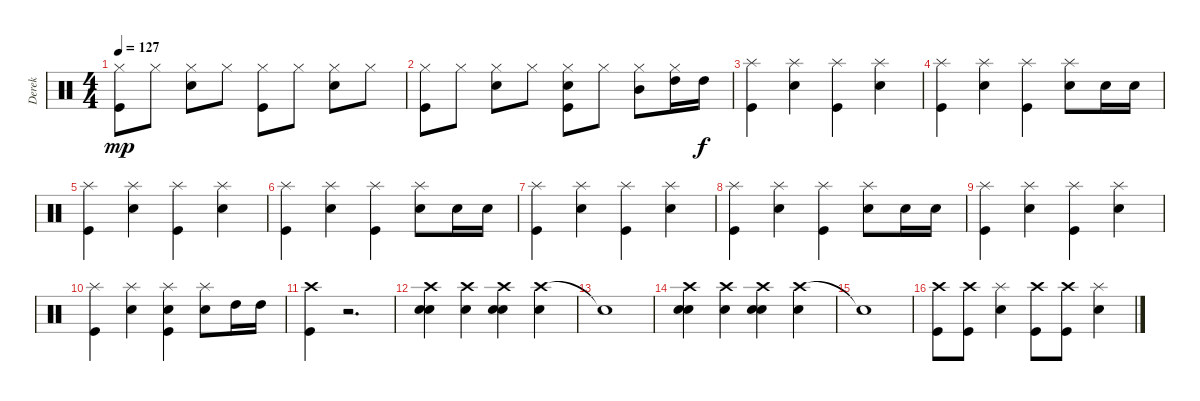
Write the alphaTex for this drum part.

\track ("Derek" "Derek") {instrument percussion}
\staff {score}
\articulation defaults
\ts (4 4)
\tempo 127
\clef neutral
\ks c
("Hi-Hat (closed)" "Kick (hit)").8{dy mp} "Hi-Hat (closed)".8 ("Hi-Hat (closed)" "Snare (hit) 2").8 "Hi-Hat (closed)".8 ("Hi-Hat (closed)" "Kick (hit)").8 "Hi-Hat (closed)".8 ("Hi-Hat (closed)" "Snare (hit) 2").8 "Hi-Hat (closed)".8 |
("Hi-Hat (closed)" "Kick (hit)").8 "Hi-Hat (closed)".8 ("Hi-Hat (closed)" "Snare (hit) 2").8 "Hi-Hat (closed)".8 ("Hi-Hat (closed)" "Snare (hit) 2" "Kick (hit)").8 "Hi-Hat (closed)".8 ("Hi-Hat (closed)" "Mid Tom (hit)").8 ("Hi-Hat (closed)" "High Tom (hit)").16 "High Tom (hit)".16{dy f} |
("Splash (hit)" "Kick (hit)").4 ("Splash (hit)" "Snare (hit) 2").4 ("Splash (hit)" "Kick (hit)").4 ("Splash (hit)" "Snare (hit) 2").4 |
("Splash (hit)" "Kick (hit)").4 ("Splash (hit)" "Snare (hit) 2").4 ("Splash (hit)" "Kick (hit)").4 ("Splash (hit)" "Snare (hit) 2").8 "Snare (hit) 2".16 "Snare (hit) 2".16 |
("Splash (hit)" "Kick (hit)").4 ("Splash (hit)" "Snare (hit) 2").4 ("Splash (hit)" "Kick (hit)").4 ("Splash (hit)" "Snare (hit) 2").4 |
("Splash (hit)" "Kick (hit)").4 ("Splash (hit)" "Snare (hit) 2").4 ("Splash (hit)" "Kick (hit)").4 ("Splash (hit)" "Snare (hit) 2").8 "Snare (hit) 2".16 "Snare (hit) 2".16 |
("Splash (hit)" "Kick (hit)").4 ("Splash (hit)" "Snare (hit) 2").4 ("Splash (hit)" "Kick (hit)").4 ("Splash (hit)" "Snare (hit) 2").4 |
("Splash (hit)" "Kick (hit)").4 ("Splash (hit)" "Snare (hit) 2").4 ("Splash (hit)" "Kick (hit)").4 ("Splash (hit)" "Snare (hit) 2").8 "Snare (hit) 2".16 "Snare (hit) 2".16 |
("Splash (hit)" "Kick (hit)").4 ("Splash (hit)" "Snare (hit) 2").4 ("Splash (hit)" "Kick (hit)").4 ("Splash (hit)" "Snare (hit) 2").4 |
("Splash (hit)" "Kick (hit)").4 ("Splash (hit)" "Snare (hit) 2").4 ("Splash (hit)" "Snare (hit) 2" "Kick (hit)").4 ("Splash (hit)" "Snare (hit) 2").8 "High Tom (hit)".16 "High Tom (hit)".16 |
("Crash high (hit)" "Kick (hit)").4 r.2{d} |
("Crash high (hit)" "Snare (hit) 2" "Snare (hit) 2").4 ("Crash high (hit)" "Snare (hit) 2").4 ("Crash high (hit)" "Snare (hit) 2" "Snare (hit) 2").4 ("Crash high (hit)" "Snare (hit) 2").4 |
"Snare (hit)"{t}.1 |
("Crash high (hit)" "Snare (hit) 2" "Snare (hit) 2").4 ("Crash high (hit)" "Snare (hit) 2").4 ("Crash high (hit)" "Snare (hit) 2" "Snare (hit) 2").4 ("Crash high (hit)" "Snare (hit) 2").4 |
"Snare (hit)"{t}.1 |
("Crash high (hit)" "Kick (hit)").8 ("Crash high (hit)" "Kick (hit)").8 ("Splash (hit)" "Snare (hit) 2").4 ("Crash high (hit)" "Kick (hit)").8 ("Crash high (hit)" "Kick (hit)").8 ("Splash (hit)" "Snare (hit) 2").4
